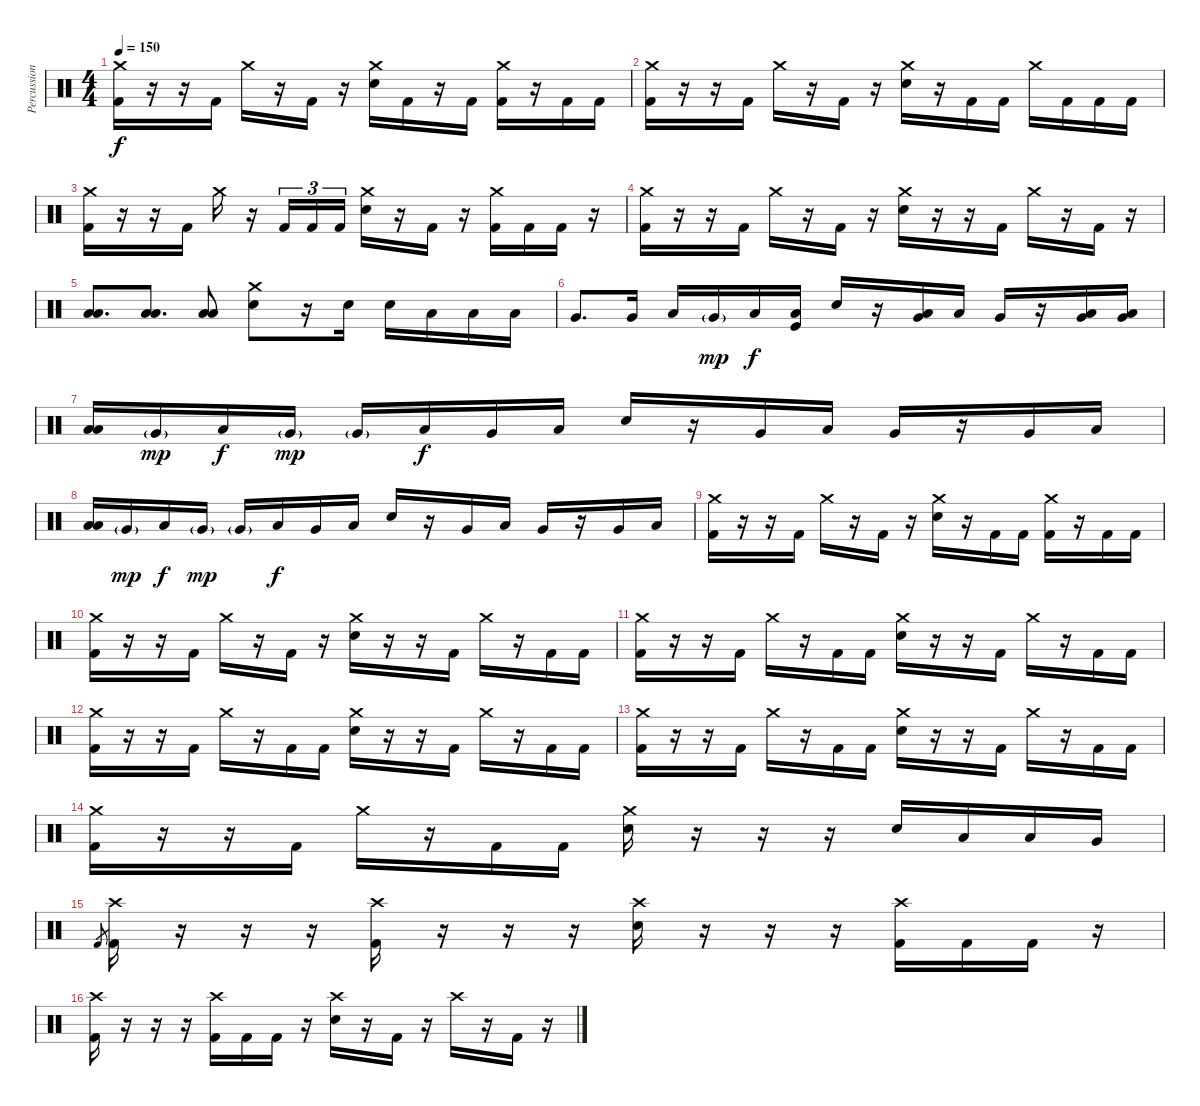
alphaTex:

\track ("Percussion" "Percussion") {instrument percussion}
\staff {score}
\articulation defaults
\ts (4 4)
\tempo 150
\clef neutral
\ks c
("Crash medium (hit)" "Kick (hit) 2").16{dy f} r.16 r.16 "Kick (hit) 2".16 "Crash medium (hit)".16 r.16 "Kick (hit) 2".16 r.16 ("Crash medium (hit)" "Electric Snare (hit)").16 "Kick (hit) 2".16 r.16 "Kick (hit) 2".16 ("Crash medium (hit)" "Kick (hit) 2").16 r.16 "Kick (hit) 2".16 "Kick (hit) 2".16 |
("Crash medium (hit)" "Kick (hit) 2").16 r.16 r.16 "Kick (hit) 2".16 "Crash medium (hit)".16 r.16 "Kick (hit) 2".16 r.16 ("Crash medium (hit)" "Electric Snare (hit)").16 r.16 "Kick (hit) 2".16 "Kick (hit) 2".16 "Crash medium (hit)".16 "Kick (hit) 2".16 "Kick (hit) 2".16 "Kick (hit) 2".16 |
("Crash medium (hit)" "Kick (hit) 2").16 r.16 r.16 "Kick (hit) 2".16 "Crash medium (hit)".16 r.16 "Kick (hit) 2".16{tu (3 2)} "Kick (hit) 2".16{tu (3 2)} "Kick (hit) 2".16{tu (3 2)} ("Crash medium (hit)" "Electric Snare (hit)").16 r.16 "Kick (hit) 2".16 r.16 ("Crash medium (hit)" "Kick (hit) 2").16 "Kick (hit) 2".16 "Kick (hit) 2".16 r.16 |
("Crash medium (hit)" "Kick (hit) 2").16 r.16 r.16 "Kick (hit) 2".16 "Crash medium (hit)".16 r.16 "Kick (hit) 2".16 r.16 ("Crash medium (hit)" "Electric Snare (hit)").16 r.16 r.16 "Kick (hit) 2".16 "Crash medium (hit)".16 r.16 "Kick (hit) 2".16 r.16 |
("Low Tom (hit)" "Low Floor Tom (hit)").8{d} ("Low Tom (hit)" "Low Floor Tom (hit)").8{d} ("Low Tom (hit)" "Low Floor Tom (hit)").8 ("Crash medium (hit)" "Electric Snare (hit)").8 r.16 "Electric Snare (hit)".16 "Electric Snare (hit)".16 "Low Tom (hit)".16 "Low Tom (hit)".16 "Low Tom (hit)".16 |
"Very Low Tom (hit)".8{d} "Very Low Tom (hit)".16 "Low Tom (hit)".16 "Very Low Tom (hit)"{g}.16{dy mp} "Low Tom (hit)".16{dy f} ("Low Floor Tom (hit)" "Kick (hit)").16 "Electric Snare (hit)".16 r.16 ("Very Low Tom (hit)" "Low Floor Tom (hit)").16 "Low Tom (hit)".16 "Very Low Tom (hit)".16 r.16 ("Very Low Tom (hit)" "Low Floor Tom (hit)").16 ("Very Low Tom (hit)" "Low Floor Tom (hit)").16 |
("Low Tom (hit)" "Low Floor Tom (hit)").16 "Very Low Tom (hit)"{g}.16{dy mp} "Low Tom (hit)".16{dy f} "Very Low Tom (hit)"{g}.16{dy mp} "Very Low Tom (hit)"{g}.16 "Low Floor Tom (hit)".16{dy f} "Very Low Tom (hit)".16 "Low Floor Tom (hit)".16 "Electric Snare (hit)".16 r.16 "Very Low Tom (hit)".16 "Low Tom (hit)".16 "Very Low Tom (hit)".16 r.16 "Very Low Tom (hit)".16 "Low Tom (hit)".16 |
("Low Tom (hit)" "Low Floor Tom (hit)").16 "Very Low Tom (hit)"{g}.16{dy mp} "Low Tom (hit)".16{dy f} "Very Low Tom (hit)"{g}.16{dy mp} "Very Low Tom (hit)"{g}.16 "Low Floor Tom (hit)".16{dy f} "Very Low Tom (hit)".16 "Low Floor Tom (hit)".16 "Electric Snare (hit)".16 r.16 "Very Low Tom (hit)".16 "Low Tom (hit)".16 "Very Low Tom (hit)".16 r.16 "Very Low Tom (hit)".16 "Low Tom (hit)".16 |
("Crash medium (hit)" "Kick (hit) 2").16 r.16 r.16 "Kick (hit) 2".16 "Crash medium (hit)".16 r.16 "Kick (hit) 2".16 r.16 ("Crash medium (hit)" "Electric Snare (hit)").16 r.16 "Kick (hit) 2".16 "Kick (hit) 2".16 ("Crash medium (hit)" "Kick (hit) 2").16 r.16 "Kick (hit) 2".16 "Kick (hit) 2".16 |
("Crash medium (hit)" "Kick (hit) 2").16 r.16 r.16 "Kick (hit) 2".16 "Crash medium (hit)".16 r.16 "Kick (hit) 2".16 r.16 ("Crash medium (hit)" "Electric Snare (hit)").16 r.16 r.16 "Kick (hit) 2".16 "Crash medium (hit)".16 r.16 "Kick (hit) 2".16 "Kick (hit) 2".16 |
("Crash medium (hit)" "Kick (hit) 2").16 r.16 r.16 "Kick (hit) 2".16 "Crash medium (hit)".16 r.16 "Kick (hit) 2".16 "Kick (hit) 2".16 ("Crash medium (hit)" "Electric Snare (hit)").16 r.16 r.16 "Kick (hit) 2".16 "Crash medium (hit)".16 r.16 "Kick (hit) 2".16 "Kick (hit) 2".16 |
("Crash medium (hit)" "Kick (hit) 2").16 r.16 r.16 "Kick (hit) 2".16 "Crash medium (hit)".16 r.16 "Kick (hit) 2".16 "Kick (hit) 2".16 ("Crash medium (hit)" "Electric Snare (hit)").16 r.16 r.16 "Kick (hit) 2".16 "Crash medium (hit)".16 r.16 "Kick (hit) 2".16 "Kick (hit) 2".16 |
("Crash medium (hit)" "Kick (hit) 2").16 r.16 r.16 "Kick (hit) 2".16 "Crash medium (hit)".16 r.16 "Kick (hit) 2".16 "Kick (hit) 2".16 ("Crash medium (hit)" "Electric Snare (hit)").16 r.16 r.16 "Kick (hit) 2".16 "Crash medium (hit)".16 r.16 "Kick (hit) 2".16 "Kick (hit) 2".16 |
("Crash medium (hit)" "Kick (hit) 2").16 r.16 r.16 "Kick (hit) 2".16 "Crash medium (hit)".16 r.16 "Kick (hit) 2".16 "Kick (hit) 2".16 ("Crash medium (hit)" "Electric Snare (hit)").16 r.16 r.16 r.16 "Electric Snare (hit)".16 "Low Tom (hit)".16 "Low Tom (hit)".16 "Very Low Tom (hit)".16 |
"Kick (hit) 2".8{gr} ("Crash high (hit)" "Kick (hit) 2").16 r.16 r.16 r.16 ("Crash high (hit)" "Kick (hit) 2").16 r.16 r.16 r.16 ("Crash high (hit)" "Electric Snare (hit)").16 r.16 r.16 r.16 ("Crash high (hit)" "Kick (hit) 2").16 "Kick (hit) 2".16 "Kick (hit) 2".16 r.16 |
("Crash high (hit)" "Kick (hit) 2").16 r.16 r.16 r.16 ("Crash high (hit)" "Kick (hit) 2").16 "Kick (hit) 2".16 "Kick (hit) 2".16 r.16 ("Crash high (hit)" "Electric Snare (hit)").16 r.16 "Kick (hit) 2".16 r.16 "Crash high (hit)".16 r.16 "Kick (hit) 2".16 r.16
